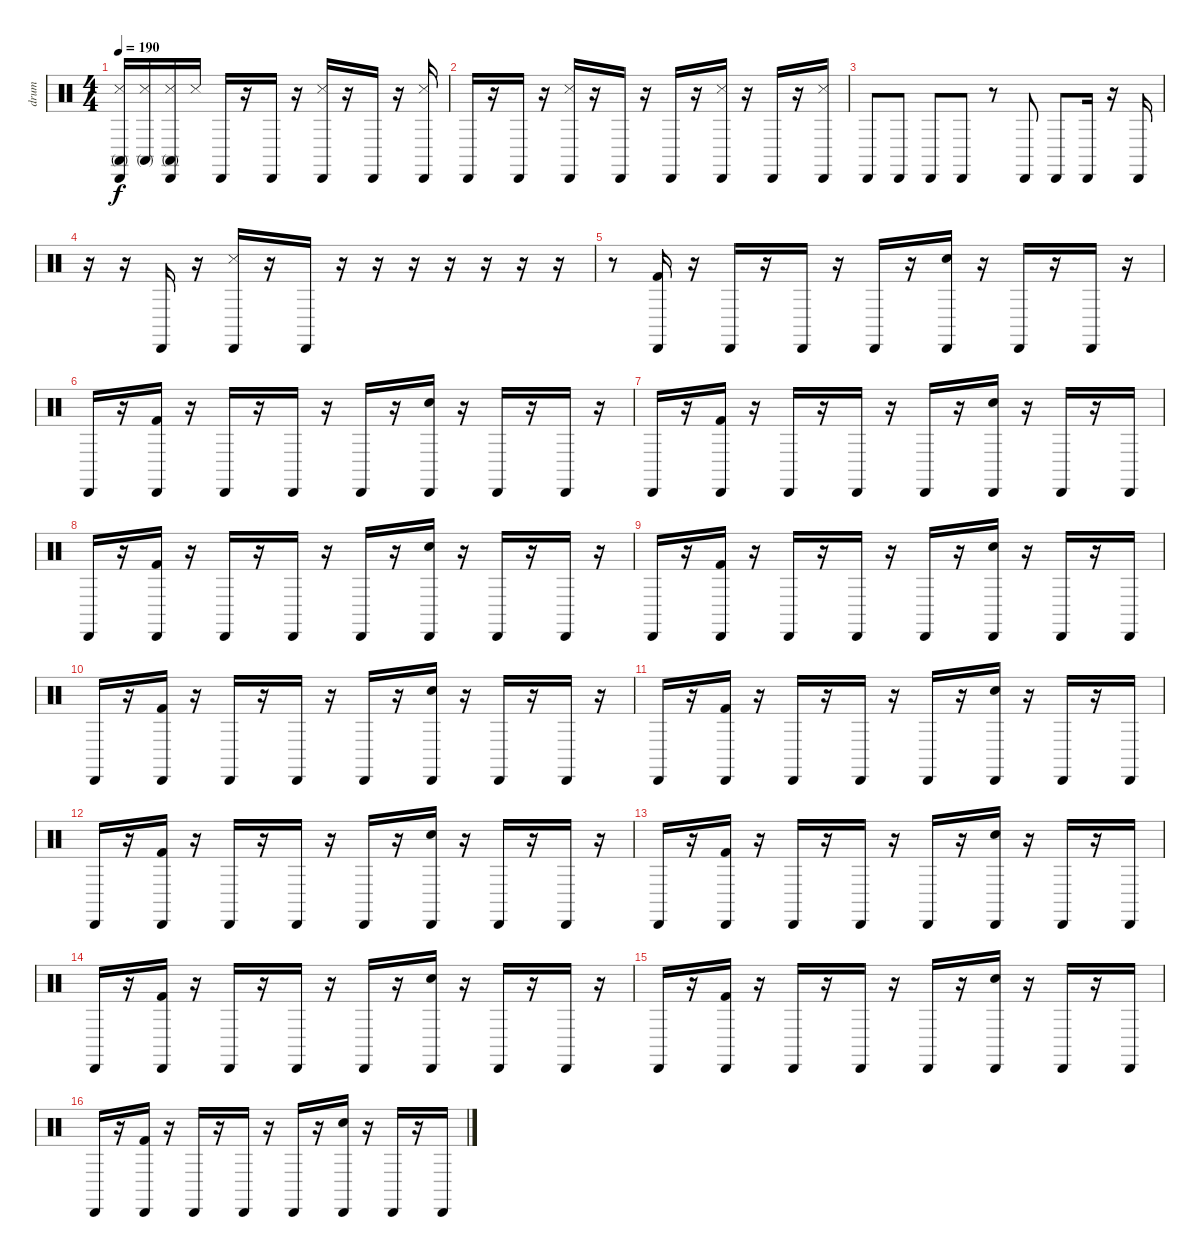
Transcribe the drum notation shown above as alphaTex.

\track ("drum" "drum") {instrument percussion}
\staff {score}
\articulation defaults
\ts (4 4)
\tempo 190
\clef neutral
\ks c
("Cabasa (hit)" "Conga high (mute)" "Snare (side stick) 3").16{dy f} ("Conga high (mute)" "Snare (side stick) 3").16 ("Cabasa (hit)" "Conga high (mute)" "Snare (side stick) 3").16 "Snare (side stick) 3".16 "Cabasa (hit)".16 r.16 "Cabasa (hit)".16 r.16 ("Cabasa (hit)" "Snare (side stick) 3").16 r.16 "Cabasa (hit)".16 r.16 ("Cabasa (hit)" "Snare (side stick) 3").16 |
"Cabasa (hit)".16 r.16 "Cabasa (hit)".16 r.16 ("Cabasa (hit)" "Snare (side stick) 3").16 r.16 "Cabasa (hit)".16 r.16 "Cabasa (hit)".16 r.16 ("Cabasa (hit)" "Snare (side stick) 3").16 r.16 "Cabasa (hit)".16 r.16 ("Cabasa (hit)" "Snare (side stick) 3").16 |
"Cabasa (hit)".8 "Cabasa (hit)".8 "Cabasa (hit)".8 "Cabasa (hit)".8 r.8 "Cabasa (hit)".8 "Cabasa (hit)".8 "Cabasa (hit)".16 r.16 "Cabasa (hit)".16 |
r.16 r.16 "Cabasa (hit)".16 r.16 ("Cabasa (hit)" "Snare (side stick) 3").16 r.16 "Cabasa (hit)".16 r.16 r.16 r.16 r.16 r.16 r.16 r.16 |
r.8 ("Cabasa (hit)" "Kick (hit) 2").16 r.16 "Cabasa (hit)".16 r.16 "Cabasa (hit)".16 r.16 "Cabasa (hit)".16 r.16 ("Cabasa (hit)" "Snare (hit) 2").16 r.16 "Cabasa (hit)".16 r.16 "Cabasa (hit)".16 r.16 |
"Cabasa (hit)".16 r.16 ("Cabasa (hit)" "Kick (hit) 2").16 r.16 "Cabasa (hit)".16 r.16 "Cabasa (hit)".16 r.16 "Cabasa (hit)".16 r.16 ("Cabasa (hit)" "Snare (hit) 2").16 r.16 "Cabasa (hit)".16 r.16 "Cabasa (hit)".16 r.16 |
"Cabasa (hit)".16 r.16 ("Cabasa (hit)" "Kick (hit) 2").16 r.16 "Cabasa (hit)".16 r.16 "Cabasa (hit)".16 r.16 "Cabasa (hit)".16 r.16 ("Cabasa (hit)" "Snare (hit) 2").16 r.16 "Cabasa (hit)".16 r.16 "Cabasa (hit)".16 |
"Cabasa (hit)".16 r.16 ("Cabasa (hit)" "Kick (hit) 2").16 r.16 "Cabasa (hit)".16 r.16 "Cabasa (hit)".16 r.16 "Cabasa (hit)".16 r.16 ("Cabasa (hit)" "Snare (hit) 2").16 r.16 "Cabasa (hit)".16 r.16 "Cabasa (hit)".16 r.16 |
"Cabasa (hit)".16 r.16 ("Cabasa (hit)" "Kick (hit) 2").16 r.16 "Cabasa (hit)".16 r.16 "Cabasa (hit)".16 r.16 "Cabasa (hit)".16 r.16 ("Cabasa (hit)" "Snare (hit) 2").16 r.16 "Cabasa (hit)".16 r.16 "Cabasa (hit)".16 |
"Cabasa (hit)".16 r.16 ("Cabasa (hit)" "Kick (hit) 2").16 r.16 "Cabasa (hit)".16 r.16 "Cabasa (hit)".16 r.16 "Cabasa (hit)".16 r.16 ("Cabasa (hit)" "Snare (hit) 2").16 r.16 "Cabasa (hit)".16 r.16 "Cabasa (hit)".16 r.16 |
"Cabasa (hit)".16 r.16 ("Cabasa (hit)" "Kick (hit) 2").16 r.16 "Cabasa (hit)".16 r.16 "Cabasa (hit)".16 r.16 "Cabasa (hit)".16 r.16 ("Cabasa (hit)" "Snare (hit) 2").16 r.16 "Cabasa (hit)".16 r.16 "Cabasa (hit)".16 |
"Cabasa (hit)".16 r.16 ("Cabasa (hit)" "Kick (hit) 2").16 r.16 "Cabasa (hit)".16 r.16 "Cabasa (hit)".16 r.16 "Cabasa (hit)".16 r.16 ("Cabasa (hit)" "Snare (hit) 2").16 r.16 "Cabasa (hit)".16 r.16 "Cabasa (hit)".16 r.16 |
"Cabasa (hit)".16 r.16 ("Cabasa (hit)" "Kick (hit) 2").16 r.16 "Cabasa (hit)".16 r.16 "Cabasa (hit)".16 r.16 "Cabasa (hit)".16 r.16 ("Cabasa (hit)" "Snare (hit) 2").16 r.16 "Cabasa (hit)".16 r.16 "Cabasa (hit)".16 |
"Cabasa (hit)".16 r.16 ("Cabasa (hit)" "Kick (hit) 2").16 r.16 "Cabasa (hit)".16 r.16 "Cabasa (hit)".16 r.16 "Cabasa (hit)".16 r.16 ("Cabasa (hit)" "Snare (hit) 2").16 r.16 "Cabasa (hit)".16 r.16 "Cabasa (hit)".16 r.16 |
"Cabasa (hit)".16 r.16 ("Cabasa (hit)" "Kick (hit) 2").16 r.16 "Cabasa (hit)".16 r.16 "Cabasa (hit)".16 r.16 "Cabasa (hit)".16 r.16 ("Cabasa (hit)" "Snare (hit) 2").16 r.16 "Cabasa (hit)".16 r.16 "Cabasa (hit)".16 |
"Cabasa (hit)".16 r.16 ("Cabasa (hit)" "Kick (hit) 2").16 r.16 "Cabasa (hit)".16 r.16 "Cabasa (hit)".16 r.16 "Cabasa (hit)".16 r.16 ("Cabasa (hit)" "Snare (hit) 2").16 r.16 "Cabasa (hit)".16 r.16 "Cabasa (hit)".16
